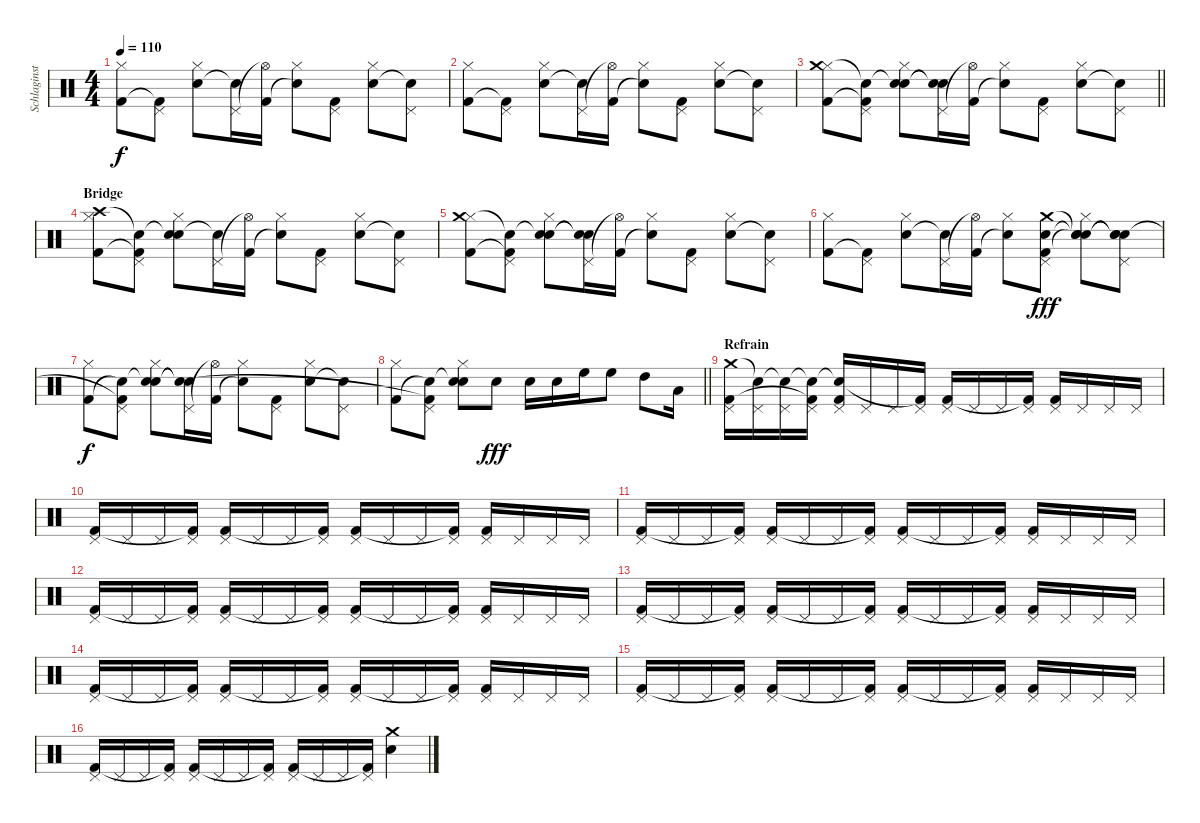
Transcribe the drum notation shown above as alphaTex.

\track ("Schlaginstrumente - Auswahl" "Schlaginst") {instrument percussion}
\staff {score}
\articulation defaults
\ts (4 4)
\tempo 110
\clef neutral
\ks c
("Hi-Hat (closed)" "Kick (hit) 2").8{dy f} ("Pedal Hi-Hat (hit)" "Kick (hit) 2"{t}).8 ("Hi-Hat (closed)" "Snare (hit) 2").8 ("Pedal Hi-Hat (hit)" "Snare (hit) 2"{t}).16 ("Hi-Hat (open)"{t} "Kick (hit) 2").16 ("Hi-Hat (closed)" "Snare (hit)"{t}).8 ("Pedal Hi-Hat (hit)" "Kick (hit) 2").8 ("Hi-Hat (closed)" "Snare (hit) 2").8 ("Pedal Hi-Hat (hit)" "Snare (hit) 2"{t}).8 |
("Hi-Hat (closed)" "Kick (hit) 2").8 ("Pedal Hi-Hat (hit)" "Kick (hit) 2"{t}).8 ("Hi-Hat (closed)" "Snare (hit) 2").8 ("Pedal Hi-Hat (hit)" "Snare (hit) 2"{t}).16 ("Hi-Hat (open)"{t} "Kick (hit) 2").16 ("Hi-Hat (closed)" "Snare (hit)"{t}).8 ("Pedal Hi-Hat (hit)" "Kick (hit) 2").8 ("Hi-Hat (closed)" "Snare (hit) 2").8 ("Pedal Hi-Hat (hit)" "Snare (hit) 2"{t}).8 |
\barLineRight lightlight
("Hi-Hat (closed)" "Crash medium (hit)" "Kick (hit) 2").8 ("Pedal Hi-Hat (hit)" "Snare (hit)"{t} "Kick (hit) 2"{t}).8 ("Hi-Hat (closed)" "Snare (hit)"{t} "Snare (hit) 2").8 ("Pedal Hi-Hat (hit)" "Snare (hit)"{t} "Snare (hit) 2"{t}).16 ("Hi-Hat (open)"{t} "Kick (hit) 2").16 ("Hi-Hat (closed)" "Snare (hit)"{t}).8 ("Pedal Hi-Hat (hit)" "Kick (hit) 2").8 ("Hi-Hat (closed)" "Snare (hit) 2").8 ("Pedal Hi-Hat (hit)" "Snare (hit) 2"{t}).8 |
\section ("" "Bridge")
("Hi-Hat (closed)" "Crash high (hit)" "Kick (hit) 2").8 ("Pedal Hi-Hat (hit)" "Snare (hit)"{t} "Kick (hit) 2"{t}).8 ("Hi-Hat (closed)" "Snare (hit)"{t} "Snare (hit) 2").8 ("Pedal Hi-Hat (hit)" "Snare (hit) 2"{t}).16 ("Hi-Hat (open)"{t} "Kick (hit) 2").16 ("Hi-Hat (closed)" "Snare (hit)"{t}).8 ("Pedal Hi-Hat (hit)" "Kick (hit) 2").8 ("Hi-Hat (closed)" "Snare (hit) 2").8 ("Pedal Hi-Hat (hit)" "Snare (hit) 2"{t}).8 |
("Hi-Hat (closed)" "Crash medium (hit)" "Kick (hit) 2").8 ("Pedal Hi-Hat (hit)" "Snare (hit)"{t} "Kick (hit) 2"{t}).8 ("Hi-Hat (closed)" "Snare (hit)"{t} "Snare (hit) 2").8 ("Pedal Hi-Hat (hit)" "Snare (hit)"{t} "Snare (hit) 2"{t}).16 ("Hi-Hat (open)"{t} "Kick (hit) 2").16 ("Hi-Hat (closed)" "Snare (hit)"{t}).8 ("Pedal Hi-Hat (hit)" "Kick (hit) 2").8 ("Hi-Hat (closed)" "Snare (hit) 2").8 ("Pedal Hi-Hat (hit)" "Snare (hit) 2"{t}).8 |
("Hi-Hat (closed)" "Kick (hit) 2").8 ("Pedal Hi-Hat (hit)" "Kick (hit) 2"{t}).8 ("Hi-Hat (closed)" "Snare (hit) 2").8 ("Pedal Hi-Hat (hit)" "Snare (hit) 2"{t}).16 ("Hi-Hat (open)"{t} "Kick (hit) 2").16 ("Hi-Hat (closed)" "Snare (hit)"{t}).8 ("Pedal Hi-Hat (hit)" "Crash medium (hit)" "Snare (hit) 2" "Kick (hit) 2").8{dy fff} ("Hi-Hat (closed)" "Snare (hit)"{t} "Snare (hit)"{t} "Snare (hit)"{t}).8 ("Pedal Hi-Hat (hit)" "Snare (hit)"{t} "Snare (hit)"{t} "Snare (hit)"{t}).8 |
("Hi-Hat (closed)" "Kick (hit) 2").8{dy f} ("Pedal Hi-Hat (hit)" "Snare (hit)"{t} "Kick (hit) 2"{t}).8 ("Hi-Hat (closed)" "Snare (hit)"{t} "Snare (hit) 2").8 ("Pedal Hi-Hat (hit)" "Snare (hit)"{t} "Snare (hit) 2"{t}).16 ("Hi-Hat (open)"{t} "Kick (hit) 2").16 ("Hi-Hat (closed)" "Snare (hit)"{t}).8 ("Pedal Hi-Hat (hit)" "Kick (hit) 2").8 ("Hi-Hat (closed)" "Snare (hit) 2").8 ("Pedal Hi-Hat (hit)" "Snare (hit) 2"{t}).8 |
\barLineRight lightlight
("Hi-Hat (closed)" "Kick (hit) 2").8 ("Pedal Hi-Hat (hit)" "Snare (hit)"{t} "Kick (hit) 2"{t}).8 ("Hi-Hat (closed)" "Snare (hit)"{t} "Snare (hit) 2").8 "Snare (hit) 2".8{dy fff} "Snare (hit) 2".16 "Snare (hit) 2".16 "High Floor Tom (hit)".16 "High Floor Tom (hit)".8 "High Tom (hit)".8 "Low Tom (hit)".16 |
\section ("" "Refrain")
("Pedal Hi-Hat (hit)" "Crash medium (hit)" "Kick (hit) 2").16 ("Pedal Hi-Hat (hit)" "Snare (hit)"{t}).16 ("Pedal Hi-Hat (hit)" "Snare (hit)"{t}).16 ("Pedal Hi-Hat (hit)" "Snare (hit)"{t} "Kick (hit) 2"{t}).16 ("Pedal Hi-Hat (hit)" "Snare (hit)"{t} "Kick (hit) 2").16 "Pedal Hi-Hat (hit)".16 "Pedal Hi-Hat (hit)".16 ("Pedal Hi-Hat (hit)" "Kick (hit) 2"{t}).16 ("Pedal Hi-Hat (hit)" "Kick (hit) 2").16 "Pedal Hi-Hat (hit)".16 "Pedal Hi-Hat (hit)".16 ("Pedal Hi-Hat (hit)" "Kick (hit) 2"{t}).16 ("Pedal Hi-Hat (hit)" "Kick (hit) 2").16 "Pedal Hi-Hat (hit)".16 "Pedal Hi-Hat (hit)".16 "Pedal Hi-Hat (hit)".16 |
("Pedal Hi-Hat (hit)" "Kick (hit) 2").16 "Pedal Hi-Hat (hit)".16 "Pedal Hi-Hat (hit)".16 ("Pedal Hi-Hat (hit)" "Kick (hit) 2"{t}).16 ("Pedal Hi-Hat (hit)" "Kick (hit) 2").16 "Pedal Hi-Hat (hit)".16 "Pedal Hi-Hat (hit)".16 ("Pedal Hi-Hat (hit)" "Kick (hit) 2"{t}).16 ("Pedal Hi-Hat (hit)" "Kick (hit) 2").16 "Pedal Hi-Hat (hit)".16 "Pedal Hi-Hat (hit)".16 ("Pedal Hi-Hat (hit)" "Kick (hit) 2"{t}).16 ("Pedal Hi-Hat (hit)" "Kick (hit) 2").16 "Pedal Hi-Hat (hit)".16 "Pedal Hi-Hat (hit)".16 "Pedal Hi-Hat (hit)".16 |
("Pedal Hi-Hat (hit)" "Kick (hit) 2").16 "Pedal Hi-Hat (hit)".16 "Pedal Hi-Hat (hit)".16 ("Pedal Hi-Hat (hit)" "Kick (hit) 2"{t}).16 ("Pedal Hi-Hat (hit)" "Kick (hit) 2").16 "Pedal Hi-Hat (hit)".16 "Pedal Hi-Hat (hit)".16 ("Pedal Hi-Hat (hit)" "Kick (hit) 2"{t}).16 ("Pedal Hi-Hat (hit)" "Kick (hit) 2").16 "Pedal Hi-Hat (hit)".16 "Pedal Hi-Hat (hit)".16 ("Pedal Hi-Hat (hit)" "Kick (hit) 2"{t}).16 ("Pedal Hi-Hat (hit)" "Kick (hit) 2").16 "Pedal Hi-Hat (hit)".16 "Pedal Hi-Hat (hit)".16 "Pedal Hi-Hat (hit)".16 |
("Pedal Hi-Hat (hit)" "Kick (hit) 2").16 "Pedal Hi-Hat (hit)".16 "Pedal Hi-Hat (hit)".16 ("Pedal Hi-Hat (hit)" "Kick (hit) 2"{t}).16 ("Pedal Hi-Hat (hit)" "Kick (hit) 2").16 "Pedal Hi-Hat (hit)".16 "Pedal Hi-Hat (hit)".16 ("Pedal Hi-Hat (hit)" "Kick (hit) 2"{t}).16 ("Pedal Hi-Hat (hit)" "Kick (hit) 2").16 "Pedal Hi-Hat (hit)".16 "Pedal Hi-Hat (hit)".16 ("Pedal Hi-Hat (hit)" "Kick (hit) 2"{t}).16 ("Pedal Hi-Hat (hit)" "Kick (hit) 2").16 "Pedal Hi-Hat (hit)".16 "Pedal Hi-Hat (hit)".16 "Pedal Hi-Hat (hit)".16 |
("Pedal Hi-Hat (hit)" "Kick (hit) 2").16 "Pedal Hi-Hat (hit)".16 "Pedal Hi-Hat (hit)".16 ("Pedal Hi-Hat (hit)" "Kick (hit) 2"{t}).16 ("Pedal Hi-Hat (hit)" "Kick (hit) 2").16 "Pedal Hi-Hat (hit)".16 "Pedal Hi-Hat (hit)".16 ("Pedal Hi-Hat (hit)" "Kick (hit) 2"{t}).16 ("Pedal Hi-Hat (hit)" "Kick (hit) 2").16 "Pedal Hi-Hat (hit)".16 "Pedal Hi-Hat (hit)".16 ("Pedal Hi-Hat (hit)" "Kick (hit) 2"{t}).16 ("Pedal Hi-Hat (hit)" "Kick (hit) 2").16 "Pedal Hi-Hat (hit)".16 "Pedal Hi-Hat (hit)".16 "Pedal Hi-Hat (hit)".16 |
("Pedal Hi-Hat (hit)" "Kick (hit) 2").16 "Pedal Hi-Hat (hit)".16 "Pedal Hi-Hat (hit)".16 ("Pedal Hi-Hat (hit)" "Kick (hit) 2"{t}).16 ("Pedal Hi-Hat (hit)" "Kick (hit) 2").16 "Pedal Hi-Hat (hit)".16 "Pedal Hi-Hat (hit)".16 ("Pedal Hi-Hat (hit)" "Kick (hit) 2"{t}).16 ("Pedal Hi-Hat (hit)" "Kick (hit) 2").16 "Pedal Hi-Hat (hit)".16 "Pedal Hi-Hat (hit)".16 ("Pedal Hi-Hat (hit)" "Kick (hit) 2"{t}).16 ("Pedal Hi-Hat (hit)" "Kick (hit) 2").16 "Pedal Hi-Hat (hit)".16 "Pedal Hi-Hat (hit)".16 "Pedal Hi-Hat (hit)".16 |
("Pedal Hi-Hat (hit)" "Kick (hit) 2").16 "Pedal Hi-Hat (hit)".16 "Pedal Hi-Hat (hit)".16 ("Pedal Hi-Hat (hit)" "Kick (hit) 2"{t}).16 ("Pedal Hi-Hat (hit)" "Kick (hit) 2").16 "Pedal Hi-Hat (hit)".16 "Pedal Hi-Hat (hit)".16 ("Pedal Hi-Hat (hit)" "Kick (hit) 2"{t}).16 ("Pedal Hi-Hat (hit)" "Kick (hit) 2").16 "Pedal Hi-Hat (hit)".16 "Pedal Hi-Hat (hit)".16 ("Pedal Hi-Hat (hit)" "Kick (hit) 2"{t}).16 ("Pedal Hi-Hat (hit)" "Kick (hit) 2").16 "Pedal Hi-Hat (hit)".16 "Pedal Hi-Hat (hit)".16 "Pedal Hi-Hat (hit)".16 |
("Pedal Hi-Hat (hit)" "Kick (hit) 2").16 "Pedal Hi-Hat (hit)".16 "Pedal Hi-Hat (hit)".16 ("Pedal Hi-Hat (hit)" "Kick (hit) 2"{t}).16 ("Pedal Hi-Hat (hit)" "Kick (hit) 2").16 "Pedal Hi-Hat (hit)".16 "Pedal Hi-Hat (hit)".16 ("Pedal Hi-Hat (hit)" "Kick (hit) 2"{t}).16 ("Pedal Hi-Hat (hit)" "Kick (hit) 2").16 "Pedal Hi-Hat (hit)".16 "Pedal Hi-Hat (hit)".16 ("Pedal Hi-Hat (hit)" "Kick (hit) 2"{t}).16 ("Crash medium (hit)" "Snare (hit) 2").4
